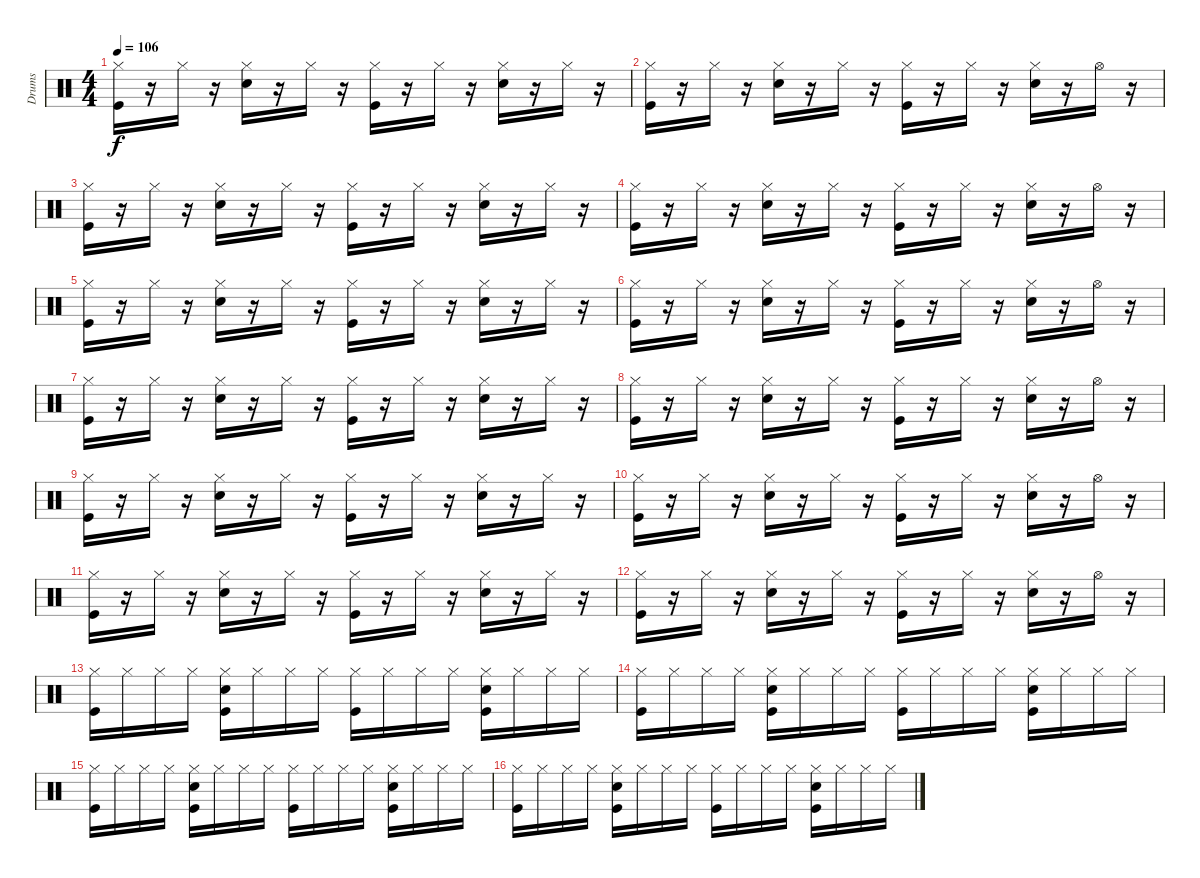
\track ("Drums" "Drums") {instrument percussion}
\staff {score}
\articulation defaults
\ts (4 4)
\tempo 106
\clef neutral
\ks c
("Kick (hit)" "Hi-Hat (closed)").16{dy f} r.16 "Hi-Hat (closed)".16 r.16 ("Hi-Hat (closed)" "Snare (hit) 2").16 r.16 "Hi-Hat (closed)".16 r.16 ("Kick (hit)" "Hi-Hat (closed)").16 r.16 "Hi-Hat (closed)".16 r.16 ("Hi-Hat (closed)" "Snare (hit) 2").16 r.16 "Hi-Hat (closed)".16 r.16 |
("Kick (hit)" "Hi-Hat (closed)").16 r.16 "Hi-Hat (closed)".16 r.16 ("Snare (hit) 2" "Hi-Hat (closed)").16 r.16 "Hi-Hat (closed)".16 r.16 ("Hi-Hat (closed)" "Kick (hit)").16 r.16 "Hi-Hat (closed)".16 r.16 ("Hi-Hat (closed)" "Snare (hit) 2").16 r.16 "Hi-Hat (open)".16 r.16 |
("Hi-Hat (closed)" "Kick (hit)").16 r.16 "Hi-Hat (closed)".16 r.16 ("Hi-Hat (closed)" "Snare (hit) 2").16 r.16 "Hi-Hat (closed)".16 r.16 ("Kick (hit)" "Hi-Hat (closed)").16 r.16 "Hi-Hat (closed)".16 r.16 ("Snare (hit) 2" "Hi-Hat (closed)").16 r.16 "Hi-Hat (closed)".16 r.16 |
("Kick (hit)" "Hi-Hat (closed)").16 r.16 "Hi-Hat (closed)".16 r.16 ("Snare (hit) 2" "Hi-Hat (closed)").16 r.16 "Hi-Hat (closed)".16 r.16 ("Kick (hit)" "Hi-Hat (closed)").16 r.16 "Hi-Hat (closed)".16 r.16 ("Hi-Hat (closed)" "Snare (hit) 2").16 r.16 "Hi-Hat (open)".16 r.16 |
("Kick (hit)" "Hi-Hat (closed)").16 r.16 "Hi-Hat (closed)".16 r.16 ("Hi-Hat (closed)" "Snare (hit) 2").16 r.16 "Hi-Hat (closed)".16 r.16 ("Kick (hit)" "Hi-Hat (closed)").16 r.16 "Hi-Hat (closed)".16 r.16 ("Hi-Hat (closed)" "Snare (hit) 2").16 r.16 "Hi-Hat (closed)".16 r.16 |
("Kick (hit)" "Hi-Hat (closed)").16 r.16 "Hi-Hat (closed)".16 r.16 ("Snare (hit) 2" "Hi-Hat (closed)").16 r.16 "Hi-Hat (closed)".16 r.16 ("Hi-Hat (closed)" "Kick (hit)").16 r.16 "Hi-Hat (closed)".16 r.16 ("Hi-Hat (closed)" "Snare (hit) 2").16 r.16 "Hi-Hat (open)".16 r.16 |
("Kick (hit)" "Hi-Hat (closed)").16 r.16 "Hi-Hat (closed)".16 r.16 ("Hi-Hat (closed)" "Snare (hit) 2").16 r.16 "Hi-Hat (closed)".16 r.16 ("Kick (hit)" "Hi-Hat (closed)").16 r.16 "Hi-Hat (closed)".16 r.16 ("Hi-Hat (closed)" "Snare (hit) 2").16 r.16 "Hi-Hat (closed)".16 r.16 |
("Hi-Hat (closed)" "Kick (hit)").16 r.16 "Hi-Hat (closed)".16 r.16 ("Hi-Hat (closed)" "Snare (hit) 2").16 r.16 "Hi-Hat (closed)".16 r.16 ("Hi-Hat (closed)" "Kick (hit)").16 r.16 "Hi-Hat (closed)".16 r.16 ("Hi-Hat (closed)" "Snare (hit) 2").16 r.16 "Hi-Hat (open)".16 r.16 |
("Hi-Hat (closed)" "Kick (hit)").16 r.16 "Hi-Hat (closed)".16 r.16 ("Hi-Hat (closed)" "Snare (hit) 2").16 r.16 "Hi-Hat (closed)".16 r.16 ("Kick (hit)" "Hi-Hat (closed)").16 r.16 "Hi-Hat (closed)".16 r.16 ("Snare (hit) 2" "Hi-Hat (closed)").16 r.16 "Hi-Hat (closed)".16 r.16 |
("Kick (hit)" "Hi-Hat (closed)").16 r.16 "Hi-Hat (closed)".16 r.16 ("Snare (hit) 2" "Hi-Hat (closed)").16 r.16 "Hi-Hat (closed)".16 r.16 ("Kick (hit)" "Hi-Hat (closed)").16 r.16 "Hi-Hat (closed)".16 r.16 ("Hi-Hat (closed)" "Snare (hit) 2").16 r.16 "Hi-Hat (open)".16 r.16 |
("Hi-Hat (closed)" "Kick (hit)").16 r.16 "Hi-Hat (closed)".16 r.16 ("Hi-Hat (closed)" "Snare (hit) 2").16 r.16 "Hi-Hat (closed)".16 r.16 ("Kick (hit)" "Hi-Hat (closed)").16 r.16 "Hi-Hat (closed)".16 r.16 ("Snare (hit) 2" "Hi-Hat (closed)").16 r.16 "Hi-Hat (closed)".16 r.16 |
("Kick (hit)" "Hi-Hat (closed)").16 r.16 "Hi-Hat (closed)".16 r.16 ("Snare (hit) 2" "Hi-Hat (closed)").16 r.16 "Hi-Hat (closed)".16 r.16 ("Kick (hit)" "Hi-Hat (closed)").16 r.16 "Hi-Hat (closed)".16 r.16 ("Hi-Hat (closed)" "Snare (hit) 2").16 r.16 "Hi-Hat (open)".16 r.16 |
("Kick (hit)" "Hi-Hat (closed)").16 "Hi-Hat (closed)".16 "Hi-Hat (closed)".16 "Hi-Hat (closed)".16 ("Kick (hit)" "Snare (hit) 2" "Hi-Hat (closed)").16 "Hi-Hat (closed)".16 "Hi-Hat (closed)".16 "Hi-Hat (closed)".16 ("Kick (hit)" "Hi-Hat (closed)").16 "Hi-Hat (closed)".16 "Hi-Hat (closed)".16 "Hi-Hat (closed)".16 ("Kick (hit)" "Snare (hit) 2" "Hi-Hat (closed)").16 "Hi-Hat (closed)".16 "Hi-Hat (closed)".16 "Hi-Hat (closed)".16 |
("Kick (hit)" "Hi-Hat (closed)").16 "Hi-Hat (closed)".16 "Hi-Hat (closed)".16 "Hi-Hat (closed)".16 ("Kick (hit)" "Snare (hit) 2" "Hi-Hat (closed)").16 "Hi-Hat (closed)".16 "Hi-Hat (closed)".16 "Hi-Hat (closed)".16 ("Kick (hit)" "Hi-Hat (closed)").16 "Hi-Hat (closed)".16 "Hi-Hat (closed)".16 "Hi-Hat (closed)".16 ("Kick (hit)" "Snare (hit) 2" "Hi-Hat (closed)").16 "Hi-Hat (closed)".16 "Hi-Hat (closed)".16 "Hi-Hat (closed)".16 |
("Hi-Hat (closed)" "Kick (hit)").16 "Hi-Hat (closed)".16 "Hi-Hat (closed)".16 "Hi-Hat (closed)".16 ("Hi-Hat (closed)" "Snare (hit) 2" "Kick (hit)").16 "Hi-Hat (closed)".16 "Hi-Hat (closed)".16 "Hi-Hat (closed)".16 ("Hi-Hat (closed)" "Kick (hit)").16 "Hi-Hat (closed)".16 "Hi-Hat (closed)".16 "Hi-Hat (closed)".16 ("Hi-Hat (closed)" "Snare (hit) 2" "Kick (hit)").16 "Hi-Hat (closed)".16 "Hi-Hat (closed)".16 "Hi-Hat (closed)".16 |
("Hi-Hat (closed)" "Kick (hit)").16 "Hi-Hat (closed)".16 "Hi-Hat (closed)".16 "Hi-Hat (closed)".16 ("Hi-Hat (closed)" "Snare (hit) 2" "Kick (hit)").16 "Hi-Hat (closed)".16 "Hi-Hat (closed)".16 "Hi-Hat (closed)".16 ("Hi-Hat (closed)" "Kick (hit)").16 "Hi-Hat (closed)".16 "Hi-Hat (closed)".16 "Hi-Hat (closed)".16 ("Hi-Hat (closed)" "Snare (hit) 2" "Kick (hit)").16 "Hi-Hat (closed)".16 "Hi-Hat (closed)".16 "Hi-Hat (closed)".16
